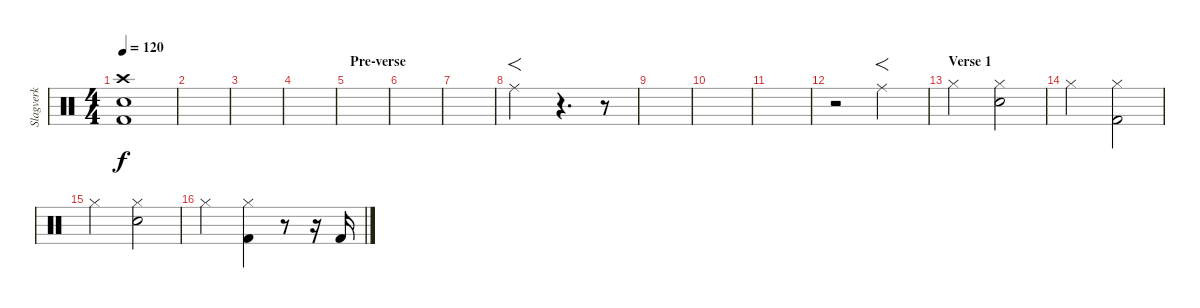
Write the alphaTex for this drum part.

\track ("Slagverk" "Slagverk") {instrument percussion}
\staff {score}
\articulation defaults
\ts (4 4)
\tempo 120
\clef neutral
\ks c
("Kick (hit) 2" "Electric Snare (hit)" "Crash high (hit)").1{dy f} |
|
|
|
\section ("" "Pre-verse")
|
|
|
"Ride (middle)".2{f} r.4{d} r.8 |
|
|
|
r.2 "Ride (middle)".2{f} |
\section ("" "Verse 1")
"Hi-Hat (closed)".2 ("Electric Snare (hit)" "Hi-Hat (closed)").2 |
"Hi-Hat (closed)".2 ("Kick (hit) 2" "Hi-Hat (closed)").2 |
"Hi-Hat (closed)".2 ("Electric Snare (hit)" "Hi-Hat (closed)").2 |
"Hi-Hat (closed)".2 ("Kick (hit) 2" "Hi-Hat (closed)").4 r.8 r.16 "Kick (hit) 2".16
